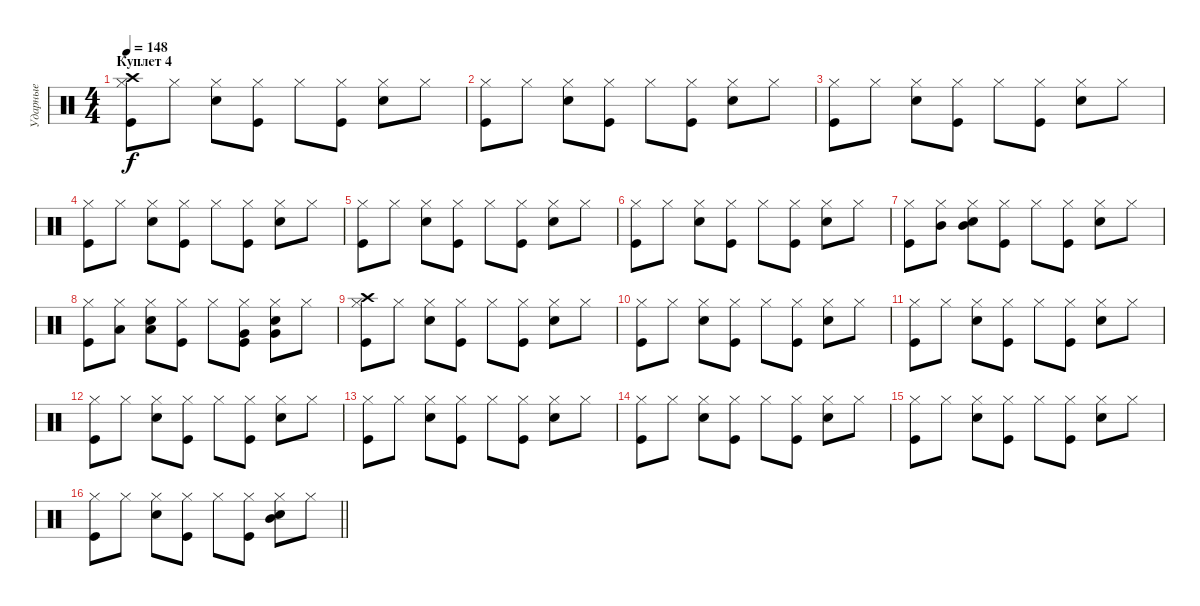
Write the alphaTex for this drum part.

\track ("Ударные" "Ударные") {instrument percussion}
\staff {score}
\articulation defaults
\ts (4 4)
\section ("" "Куплет 4")
\tempo 148
\clef neutral
\ks c
("Kick (hit)" "Hi-Hat (closed)" "Crash high (hit)").8{dy f} "Hi-Hat (closed)".8 ("Snare (hit) 2" "Hi-Hat (closed)").8 ("Kick (hit)" "Hi-Hat (closed)").8 "Hi-Hat (closed)".8 ("Kick (hit)" "Hi-Hat (closed)").8 ("Snare (hit) 2" "Hi-Hat (closed)").8 "Hi-Hat (closed)".8 |
("Kick (hit)" "Hi-Hat (closed)").8 "Hi-Hat (closed)".8 ("Snare (hit) 2" "Hi-Hat (closed)").8 ("Kick (hit)" "Hi-Hat (closed)").8 "Hi-Hat (closed)".8 ("Kick (hit)" "Hi-Hat (closed)").8 ("Snare (hit) 2" "Hi-Hat (closed)").8 "Hi-Hat (closed)".8 |
("Kick (hit)" "Hi-Hat (closed)").8 "Hi-Hat (closed)".8 ("Snare (hit) 2" "Hi-Hat (closed)").8 ("Kick (hit)" "Hi-Hat (closed)").8 "Hi-Hat (closed)".8 ("Kick (hit)" "Hi-Hat (closed)").8 ("Snare (hit) 2" "Hi-Hat (closed)").8 "Hi-Hat (closed)".8 |
("Kick (hit)" "Hi-Hat (closed)").8 "Hi-Hat (closed)".8 ("Snare (hit) 2" "Hi-Hat (closed)").8 ("Kick (hit)" "Hi-Hat (closed)").8 "Hi-Hat (closed)".8 ("Kick (hit)" "Hi-Hat (closed)").8 ("Snare (hit) 2" "Hi-Hat (closed)").8 "Hi-Hat (closed)".8 |
("Kick (hit)" "Hi-Hat (closed)").8 "Hi-Hat (closed)".8 ("Snare (hit) 2" "Hi-Hat (closed)").8 ("Kick (hit)" "Hi-Hat (closed)").8 "Hi-Hat (closed)".8 ("Kick (hit)" "Hi-Hat (closed)").8 ("Snare (hit) 2" "Hi-Hat (closed)").8 "Hi-Hat (closed)".8 |
("Kick (hit)" "Hi-Hat (closed)").8 "Hi-Hat (closed)".8 ("Snare (hit) 2" "Hi-Hat (closed)").8 ("Kick (hit)" "Hi-Hat (closed)").8 "Hi-Hat (closed)".8 ("Kick (hit)" "Hi-Hat (closed)").8 ("Snare (hit) 2" "Hi-Hat (closed)").8 "Hi-Hat (closed)".8 |
("Kick (hit)" "Hi-Hat (closed)").8 ("Hi-Hat (closed)" "Mid Tom (hit)").8 ("Snare (hit) 2" "Hi-Hat (closed)" "Mid Tom (hit)").8 ("Kick (hit)" "Hi-Hat (closed)").8 "Hi-Hat (closed)".8 ("Kick (hit)" "Hi-Hat (closed)").8 ("Snare (hit) 2" "Hi-Hat (closed)").8 "Hi-Hat (closed)".8 |
("Kick (hit)" "Hi-Hat (closed)").8 ("Hi-Hat (closed)" "Low Tom (hit)").8 ("Snare (hit) 2" "Hi-Hat (closed)" "Low Tom (hit)").8 ("Kick (hit)" "Hi-Hat (closed)").8 "Hi-Hat (closed)".8 ("Kick (hit)" "Hi-Hat (closed)" "Very Low Tom (hit)").8 ("Snare (hit) 2" "Hi-Hat (closed)" "Very Low Tom (hit)").8 "Hi-Hat (closed)".8 |
("Kick (hit)" "Hi-Hat (closed)" "Crash high (hit)").8 "Hi-Hat (closed)".8 ("Snare (hit) 2" "Hi-Hat (closed)").8 ("Kick (hit)" "Hi-Hat (closed)").8 "Hi-Hat (closed)".8 ("Kick (hit)" "Hi-Hat (closed)").8 ("Snare (hit) 2" "Hi-Hat (closed)").8 "Hi-Hat (closed)".8 |
("Kick (hit)" "Hi-Hat (closed)").8 "Hi-Hat (closed)".8 ("Snare (hit) 2" "Hi-Hat (closed)").8 ("Kick (hit)" "Hi-Hat (closed)").8 "Hi-Hat (closed)".8 ("Kick (hit)" "Hi-Hat (closed)").8 ("Snare (hit) 2" "Hi-Hat (closed)").8 "Hi-Hat (closed)".8 |
("Kick (hit)" "Hi-Hat (closed)").8 "Hi-Hat (closed)".8 ("Snare (hit) 2" "Hi-Hat (closed)").8 ("Kick (hit)" "Hi-Hat (closed)").8 "Hi-Hat (closed)".8 ("Kick (hit)" "Hi-Hat (closed)").8 ("Snare (hit) 2" "Hi-Hat (closed)").8 "Hi-Hat (closed)".8 |
("Kick (hit)" "Hi-Hat (closed)").8 "Hi-Hat (closed)".8 ("Snare (hit) 2" "Hi-Hat (closed)").8 ("Kick (hit)" "Hi-Hat (closed)").8 "Hi-Hat (closed)".8 ("Kick (hit)" "Hi-Hat (closed)").8 ("Snare (hit) 2" "Hi-Hat (closed)").8 "Hi-Hat (closed)".8 |
("Kick (hit)" "Hi-Hat (closed)").8 "Hi-Hat (closed)".8 ("Snare (hit) 2" "Hi-Hat (closed)").8 ("Kick (hit)" "Hi-Hat (closed)").8 "Hi-Hat (closed)".8 ("Kick (hit)" "Hi-Hat (closed)").8 ("Snare (hit) 2" "Hi-Hat (closed)").8 "Hi-Hat (closed)".8 |
("Kick (hit)" "Hi-Hat (closed)").8 "Hi-Hat (closed)".8 ("Snare (hit) 2" "Hi-Hat (closed)").8 ("Kick (hit)" "Hi-Hat (closed)").8 "Hi-Hat (closed)".8 ("Kick (hit)" "Hi-Hat (closed)").8 ("Snare (hit) 2" "Hi-Hat (closed)").8 "Hi-Hat (closed)".8 |
("Kick (hit)" "Hi-Hat (closed)").8 "Hi-Hat (closed)".8 ("Snare (hit) 2" "Hi-Hat (closed)").8 ("Kick (hit)" "Hi-Hat (closed)").8 "Hi-Hat (closed)".8 ("Kick (hit)" "Hi-Hat (closed)").8 ("Snare (hit) 2" "Hi-Hat (closed)").8 "Hi-Hat (closed)".8 |
\barLineRight lightlight
("Kick (hit)" "Hi-Hat (closed)").8 "Hi-Hat (closed)".8 ("Snare (hit) 2" "Hi-Hat (closed)").8 ("Kick (hit)" "Hi-Hat (closed)").8 "Hi-Hat (closed)".8 ("Kick (hit)" "Hi-Hat (closed)").8 ("Snare (hit) 2" "Hi-Hat (closed)" "Mid Tom (hit)").8 "Hi-Hat (closed)".8
